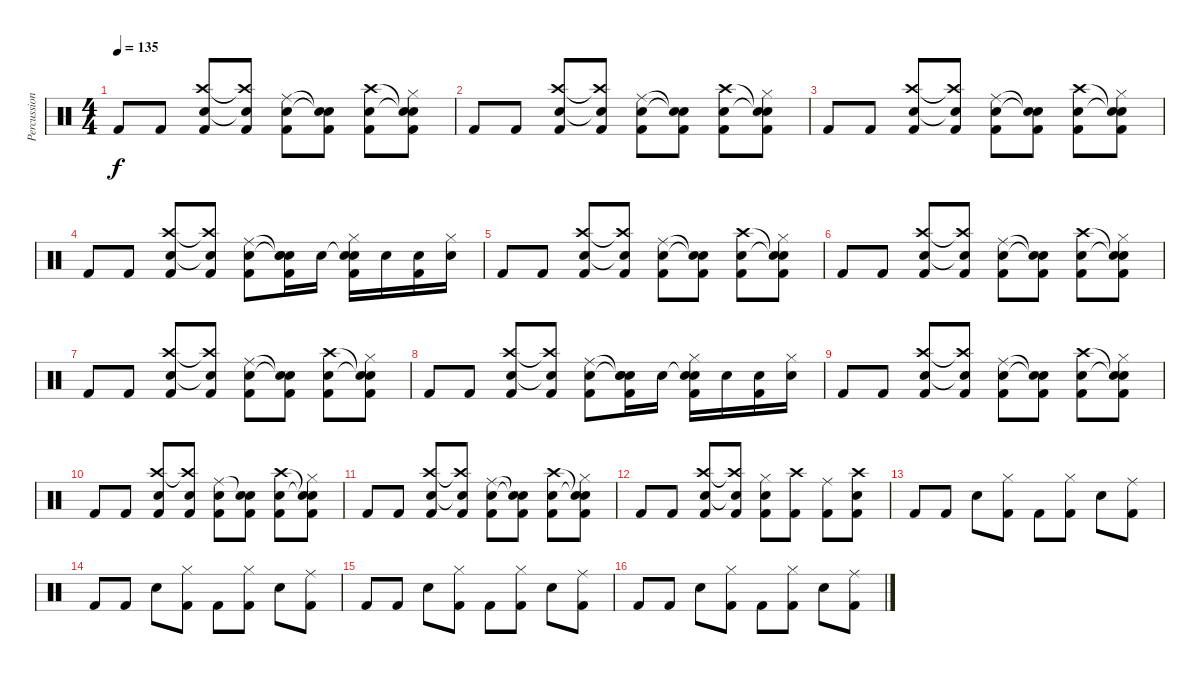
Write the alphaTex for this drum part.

\track ("Percussion" "Percussion") {instrument percussion}
\staff {score}
\articulation defaults
\ts (4 4)
\tempo 135
\clef neutral
\ks c "Kick (hit) 2".8{dy f} "Kick (hit) 2".8
("Crash high (hit)" "Electric Snare (hit)" "Kick (hit) 2").8 ("Crash high (hit)"{t} "Electric Snare (hit)"{t} "Kick (hit) 2").8 ("Ride (middle)" "Electric Snare (hit)" "Kick (hit) 2").8 ("Snare (hit)"{t} "Snare (hit)"{t} "Kick (hit) 2").8 ("Crash high (hit)" "Electric Snare (hit)" "Kick (hit) 2").8 ("Snare (hit)"{t} "Snare (hit)"{t} "Hi-Hat (closed)" "Kick (hit) 2").8 |
"Kick (hit) 2".8 "Kick (hit) 2".8 ("Crash high (hit)" "Electric Snare (hit)" "Kick (hit) 2").8 ("Crash high (hit)"{t} "Electric Snare (hit)"{t} "Kick (hit) 2").8 ("Ride (middle)" "Electric Snare (hit)" "Kick (hit) 2").8 ("Snare (hit)"{t} "Snare (hit)"{t} "Kick (hit) 2").8 ("Crash high (hit)" "Electric Snare (hit)" "Kick (hit) 2").8 ("Snare (hit)"{t} "Snare (hit)"{t} "Hi-Hat (closed)" "Kick (hit) 2").8 |
"Kick (hit) 2".8 "Kick (hit) 2".8 ("Crash high (hit)" "Electric Snare (hit)" "Kick (hit) 2").8 ("Crash high (hit)"{t} "Electric Snare (hit)"{t} "Kick (hit) 2").8 ("Ride (middle)" "Electric Snare (hit)" "Kick (hit) 2").8 ("Snare (hit)"{t} "Snare (hit)"{t} "Kick (hit) 2").8 ("Crash high (hit)" "Electric Snare (hit)" "Kick (hit) 2").8 ("Snare (hit)"{t} "Snare (hit)"{t} "Hi-Hat (closed)" "Kick (hit) 2").8 |
"Kick (hit) 2".8 "Kick (hit) 2".8 ("Crash high (hit)" "Electric Snare (hit)" "Kick (hit) 2").8 ("Crash high (hit)"{t} "Electric Snare (hit)"{t} "Kick (hit) 2").8 ("Ride (middle)" "Electric Snare (hit)" "Kick (hit) 2").8 ("Snare (hit)"{t} "Snare (hit)"{t} "Electric Snare (hit)" "Kick (hit) 2").16 "Electric Snare (hit)".16 ("Snare (hit)"{t} "Hi-Hat (closed)" "Electric Snare (hit)" "Kick (hit) 2").16 "Electric Snare (hit)".16 ("Electric Snare (hit)" "Kick (hit) 2").16 ("Hi-Hat (closed)" "Electric Snare (hit)").16 |
"Kick (hit) 2".8 "Kick (hit) 2".8 ("Crash high (hit)" "Electric Snare (hit)" "Kick (hit) 2").8 ("Crash high (hit)"{t} "Electric Snare (hit)"{t} "Kick (hit) 2").8 ("Ride (middle)" "Electric Snare (hit)" "Kick (hit) 2").8 ("Snare (hit)"{t} "Snare (hit)"{t} "Kick (hit) 2").8 ("Crash high (hit)" "Electric Snare (hit)" "Kick (hit) 2").8 ("Snare (hit)"{t} "Snare (hit)"{t} "Hi-Hat (closed)" "Kick (hit) 2").8 |
"Kick (hit) 2".8 "Kick (hit) 2".8 ("Crash high (hit)" "Electric Snare (hit)" "Kick (hit) 2").8 ("Crash high (hit)"{t} "Electric Snare (hit)"{t} "Kick (hit) 2").8 ("Ride (middle)" "Electric Snare (hit)" "Kick (hit) 2").8 ("Snare (hit)"{t} "Snare (hit)"{t} "Kick (hit) 2").8 ("Crash high (hit)" "Electric Snare (hit)" "Kick (hit) 2").8 ("Snare (hit)"{t} "Snare (hit)"{t} "Hi-Hat (closed)" "Kick (hit) 2").8 |
"Kick (hit) 2".8 "Kick (hit) 2".8 ("Crash high (hit)" "Electric Snare (hit)" "Kick (hit) 2").8 ("Crash high (hit)"{t} "Electric Snare (hit)"{t} "Kick (hit) 2").8 ("Ride (middle)" "Electric Snare (hit)" "Kick (hit) 2").8 ("Snare (hit)"{t} "Snare (hit)"{t} "Kick (hit) 2").8 ("Crash high (hit)" "Electric Snare (hit)" "Kick (hit) 2").8 ("Snare (hit)"{t} "Snare (hit)"{t} "Hi-Hat (closed)" "Kick (hit) 2").8 |
"Kick (hit) 2".8 "Kick (hit) 2".8 ("Crash high (hit)" "Electric Snare (hit)" "Kick (hit) 2").8 ("Crash high (hit)"{t} "Electric Snare (hit)"{t} "Kick (hit) 2").8 ("Ride (middle)" "Electric Snare (hit)" "Kick (hit) 2").8 ("Snare (hit)"{t} "Snare (hit)"{t} "Electric Snare (hit)" "Kick (hit) 2").16 "Electric Snare (hit)".16 ("Snare (hit)"{t} "Hi-Hat (closed)" "Electric Snare (hit)" "Kick (hit) 2").16 "Electric Snare (hit)".16 ("Electric Snare (hit)" "Kick (hit) 2").16 ("Hi-Hat (closed)" "Electric Snare (hit)").16 |
"Kick (hit) 2".8 "Kick (hit) 2".8 ("Crash high (hit)" "Electric Snare (hit)" "Kick (hit) 2").8 ("Crash high (hit)"{t} "Electric Snare (hit)"{t} "Kick (hit) 2").8 ("Ride (middle)" "Electric Snare (hit)" "Kick (hit) 2").8 ("Snare (hit)"{t} "Snare (hit)"{t} "Kick (hit) 2").8 ("Crash high (hit)" "Electric Snare (hit)" "Kick (hit) 2").8 ("Snare (hit)"{t} "Snare (hit)"{t} "Hi-Hat (closed)" "Kick (hit) 2").8 |
"Kick (hit) 2".8 "Kick (hit) 2".8 ("Crash high (hit)" "Electric Snare (hit)" "Kick (hit) 2").8 ("Crash high (hit)"{t} "Electric Snare (hit)" "Kick (hit) 2").8 ("Ride (middle)" "Electric Snare (hit)" "Kick (hit) 2").8 ("Snare (hit)"{t} "Electric Snare (hit)" "Kick (hit) 2").8 ("Crash high (hit)" "Electric Snare (hit)" "Kick (hit) 2").8 ("Snare (hit)"{t} "Snare (hit)"{t} "Hi-Hat (closed)" "Kick (hit) 2").8 |
"Kick (hit) 2".8 "Kick (hit) 2".8 ("Crash high (hit)" "Electric Snare (hit)" "Kick (hit) 2").8 ("Crash high (hit)"{t} "Electric Snare (hit)"{t} "Kick (hit) 2").8 ("Ride (middle)" "Electric Snare (hit)" "Kick (hit) 2").8 ("Snare (hit)"{t} "Snare (hit)"{t} "Kick (hit) 2").8 ("Crash high (hit)" "Electric Snare (hit)" "Kick (hit) 2").8 ("Snare (hit)"{t} "Snare (hit)"{t} "Hi-Hat (closed)" "Kick (hit) 2").8 |
"Kick (hit) 2".8 "Kick (hit) 2".8 ("Crash high (hit)" "Electric Snare (hit)" "Kick (hit) 2").8 ("Crash high (hit)"{t} "Electric Snare (hit)"{t} "Kick (hit) 2").8 ("Hi-Hat (closed)" "Electric Snare (hit)" "Kick (hit) 2").8 ("Crash high (hit)" "Kick (hit) 2").8 ("Ride (middle)" "Kick (hit) 2").8 ("Crash high (hit)" "Electric Snare (hit)" "Kick (hit) 2").8 |
"Kick (hit) 2".8 "Kick (hit) 2".8 "Electric Snare (hit)".8 ("Hi-Hat (closed)" "Kick (hit) 2").8 "Kick (hit) 2".8 ("Hi-Hat (closed)" "Kick (hit) 2").8 "Electric Snare (hit)".8 ("Ride (middle)" "Kick (hit) 2").8 |
"Kick (hit) 2".8 "Kick (hit) 2".8 "Electric Snare (hit)".8 ("Hi-Hat (closed)" "Kick (hit) 2").8 "Kick (hit) 2".8 ("Hi-Hat (closed)" "Kick (hit) 2").8 "Electric Snare (hit)".8 ("Ride (middle)" "Kick (hit) 2").8 |
"Kick (hit) 2".8 "Kick (hit) 2".8 "Electric Snare (hit)".8 ("Hi-Hat (closed)" "Kick (hit) 2").8 "Kick (hit) 2".8 ("Hi-Hat (closed)" "Kick (hit) 2").8 "Electric Snare (hit)".8 ("Ride (middle)" "Kick (hit) 2").8 |
"Kick (hit) 2".8 "Kick (hit) 2".8 "Electric Snare (hit)".8 ("Hi-Hat (closed)" "Kick (hit) 2").8 "Kick (hit) 2".8 ("Hi-Hat (closed)" "Kick (hit) 2").8 "Electric Snare (hit)".8 ("Ride (middle)" "Kick (hit) 2").8
